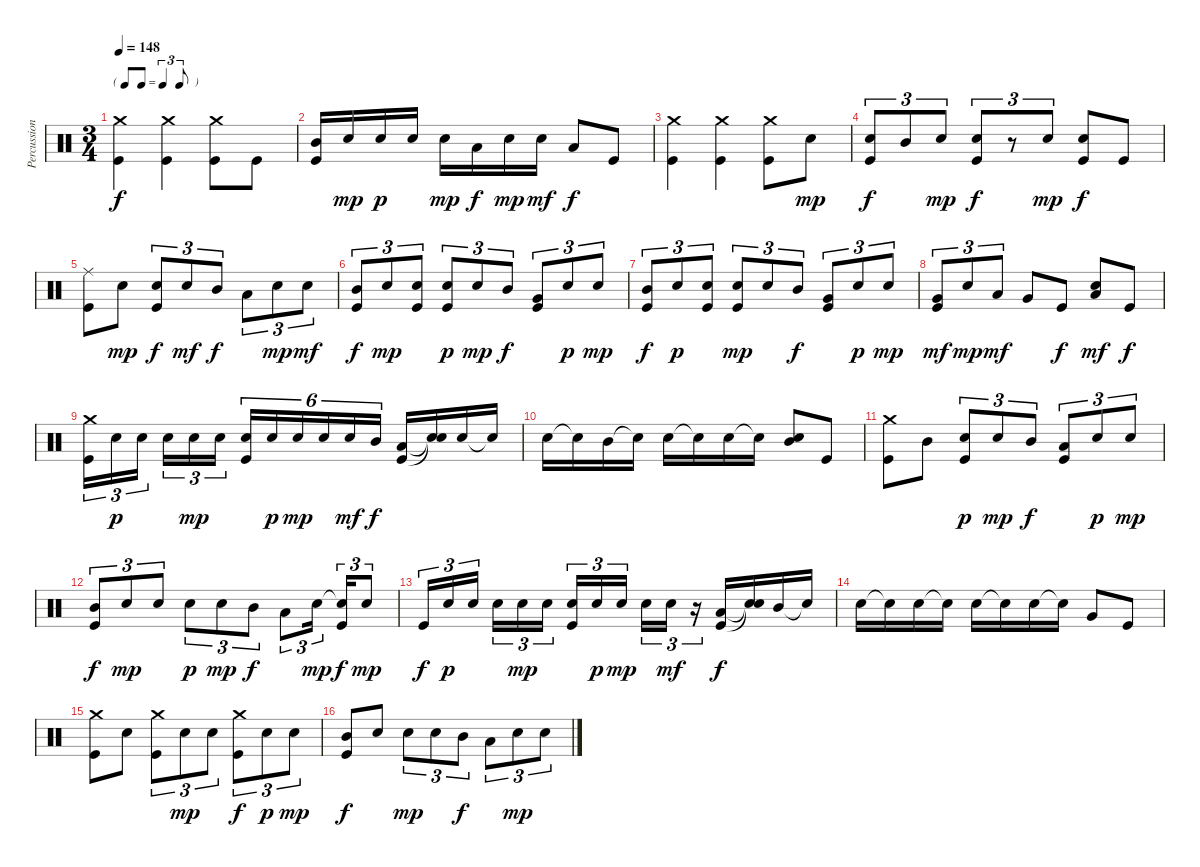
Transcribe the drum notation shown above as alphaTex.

\track ("Percussions" "Percussion") {instrument percussion}
\staff {score}
\articulation defaults
\ts (3 4)
\tf triplet8th
\tempo 148
\clef neutral
\ks c
("Crash medium (hit)" "Kick (hit)").4{dy f} ("Crash medium (hit)" "Kick (hit)").4 ("Crash medium (hit)" "Kick (hit)").8 "Kick (hit)".8 |
("Mid Tom (hit)" "Kick (hit)").16 "Electric Snare (hit)".16{dy mp} "Electric Snare (hit)".16{dy p} "Electric Snare (hit)".16 "Electric Snare (hit)".16{dy mp} "Low Tom (hit)".16{dy f} "Electric Snare (hit)".16{dy mp} "Electric Snare (hit)".16{dy mf} "Low Tom (hit)".8{dy f} "Kick (hit)".8 |
("Crash medium (hit)" "Kick (hit)").4 ("Crash medium (hit)" "Kick (hit)").4 ("Crash medium (hit)" "Kick (hit)").8 "Electric Snare (hit)".8{dy mp} |
("Electric Snare (hit)" "Kick (hit)").8{tu (3 2) dy f} "Mid Tom (hit)".8{tu (3 2)} "Electric Snare (hit)".8{tu (3 2) dy mp} ("Electric Snare (hit)" "Kick (hit)").8{tu (3 2) dy f} r.8{tu (3 2)} "Electric Snare (hit)".8{tu (3 2) dy mp} ("Electric Snare (hit)" "Kick (hit)").8{dy f} "Kick (hit)".8 |
("Ride (middle)" "Kick (hit)").8 "Electric Snare (hit)".8{dy mp} ("Electric Snare (hit)" "Kick (hit)").8{tu (3 2) dy f} "Electric Snare (hit)".8{tu (3 2) dy mf} "Mid Tom (hit)".8{tu (3 2) dy f} "Low Tom (hit)".8{tu (3 2)} "Electric Snare (hit)".8{tu (3 2) dy mp} "Electric Snare (hit)".8{tu (3 2) dy mf} |
("Mid Tom (hit)" "Kick (hit)").8{tu (3 2) dy f} "Electric Snare (hit)".8{tu (3 2) dy mp} ("Electric Snare (hit)" "Kick (hit)").8{tu (3 2)} ("Electric Snare (hit)" "Kick (hit)").8{tu (3 2) dy p} "Electric Snare (hit)".8{tu (3 2) dy mp} "Mid Tom (hit)".8{tu (3 2) dy f} ("Very Low Tom (hit)" "Kick (hit)").8{tu (3 2)} "Electric Snare (hit)".8{tu (3 2) dy p} "Electric Snare (hit)".8{tu (3 2) dy mp} |
("Mid Tom (hit)" "Kick (hit)").8{tu (3 2) dy f} "Electric Snare (hit)".8{tu (3 2) dy p} ("Electric Snare (hit)" "Kick (hit)").8{tu (3 2)} ("Electric Snare (hit)" "Kick (hit)").8{tu (3 2) dy mp} "Electric Snare (hit)".8{tu (3 2)} "Mid Tom (hit)".8{tu (3 2) dy f} ("Very Low Tom (hit)" "Kick (hit)").8{tu (3 2)} "Electric Snare (hit)".8{tu (3 2) dy p} "Electric Snare (hit)".8{tu (3 2) dy mp} |
("Very Low Tom (hit)" "Kick (hit)").8{tu (3 2) dy mf} "Electric Snare (hit)".8{tu (3 2) dy mp} "Low Tom (hit)".8{tu (3 2) dy mf} "Very Low Tom (hit)".8 "Kick (hit)".8{dy f} ("Electric Snare (hit)" "Low Tom (hit)").8{dy mf} "Kick (hit)".8{dy f} |
("Crash medium (hit)" "Kick (hit)").16{tu (3 2)} "Electric Snare (hit)".16{tu (3 2) dy p} "Electric Snare (hit)".16{tu (3 2)} "Electric Snare (hit)".16{tu (3 2)} "Electric Snare (hit)".16{tu (3 2) dy mp} "Electric Snare (hit)".16{tu (3 2)} ("Electric Snare (hit)" "Kick (hit)").16{tu (6 4)} "Electric Snare (hit)".16{tu (6 4) dy p} "Electric Snare (hit)".16{tu (6 4) dy mp} "Electric Snare (hit)".16{tu (6 4)} "Electric Snare (hit)".16{tu (6 4) dy mf} "Mid Tom (hit)".16{tu (6 4) dy f} ("Low Tom (hit)" "Kick (hit)").16 ("Snare (hit)"{t} "Snare (hit)"{t}).16 "Electric Snare (hit)".16 "Snare (hit)"{t}.16 |
"Electric Snare (hit)".16 "Snare (hit)"{t}.16 "Mid Tom (hit)".16 "Snare (hit)"{t}.16 "Electric Snare (hit)".16 "Snare (hit)"{t}.16 "Electric Snare (hit)".16 "Snare (hit)"{t}.16 ("Mid Tom (hit)" "Electric Snare (hit)").8 "Kick (hit)".8 |
("Crash medium (hit)" "Kick (hit)").8 "Mid Tom (hit)".8 ("Electric Snare (hit)" "Kick (hit)").8{tu (3 2) dy p} "Electric Snare (hit)".8{tu (3 2) dy mp} "Mid Tom (hit)".8{tu (3 2) dy f} ("Low Tom (hit)" "Kick (hit)").8{tu (3 2)} "Electric Snare (hit)".8{tu (3 2) dy p} "Electric Snare (hit)".8{tu (3 2) dy mp} |
("Mid Tom (hit)" "Kick (hit)").8{tu (3 2) dy f} "Electric Snare (hit)".8{tu (3 2) dy mp} "Electric Snare (hit)".8{tu (3 2)} "Electric Snare (hit)".8{tu (3 2) dy p} "Electric Snare (hit)".8{tu (3 2) dy mp} "Mid Tom (hit)".8{tu (3 2) dy f} "Low Tom (hit)".8{tu (3 2)} "Electric Snare (hit)".16{tu (3 2) dy mp} ("Snare (hit)"{t} "Kick (hit)").16{tu (3 2) dy f} "Electric Snare (hit)".8{tu (3 2) dy mp} |
"Kick (hit)".16{tu (3 2) dy f} "Electric Snare (hit)".16{tu (3 2) dy p} "Electric Snare (hit)".16{tu (3 2)} "Electric Snare (hit)".16{tu (3 2)} "Electric Snare (hit)".16{tu (3 2) dy mp} "Electric Snare (hit)".16{tu (3 2)} ("Electric Snare (hit)" "Kick (hit)").16{tu (3 2)} "Electric Snare (hit)".16{tu (3 2) dy p} "Electric Snare (hit)".16{tu (3 2) dy mp} "Electric Snare (hit)".16{tu (3 2)} "Electric Snare (hit)".16{tu (3 2) dy mf} r.16{tu (3 2)} ("Low Tom (hit)" "Kick (hit)").16{dy f} ("Snare (hit)"{t} "Snare (hit)"{t}).16 "Mid Tom (hit)".16 "Snare (hit)"{t}.16 |
"Electric Snare (hit)".16 "Snare (hit)"{t}.16 "Electric Snare (hit)".16 "Snare (hit)"{t}.16 "Electric Snare (hit)".16 "Snare (hit)"{t}.16 "Electric Snare (hit)".16 "Snare (hit)"{t}.16 "Very Low Tom (hit)".8 "Kick (hit)".8 |
("Crash medium (hit)" "Kick (hit)").8 "Electric Snare (hit)".8 ("Crash medium (hit)" "Kick (hit)").8{tu (3 2)} "Electric Snare (hit)".8{tu (3 2) dy mp} "Electric Snare (hit)".8{tu (3 2)} ("Crash medium (hit)" "Kick (hit)").8{tu (3 2) dy f} "Electric Snare (hit)".8{tu (3 2) dy p} "Electric Snare (hit)".8{tu (3 2) dy mp} |
("Mid Tom (hit)" "Kick (hit)").8{dy f} "Electric Snare (hit)".8 "Electric Snare (hit)".8{tu (3 2) dy mp} "Electric Snare (hit)".8{tu (3 2)} "Mid Tom (hit)".8{tu (3 2) dy f} "Low Tom (hit)".8{tu (3 2)} "Electric Snare (hit)".8{tu (3 2) dy mp} "Electric Snare (hit)".8{tu (3 2)}
